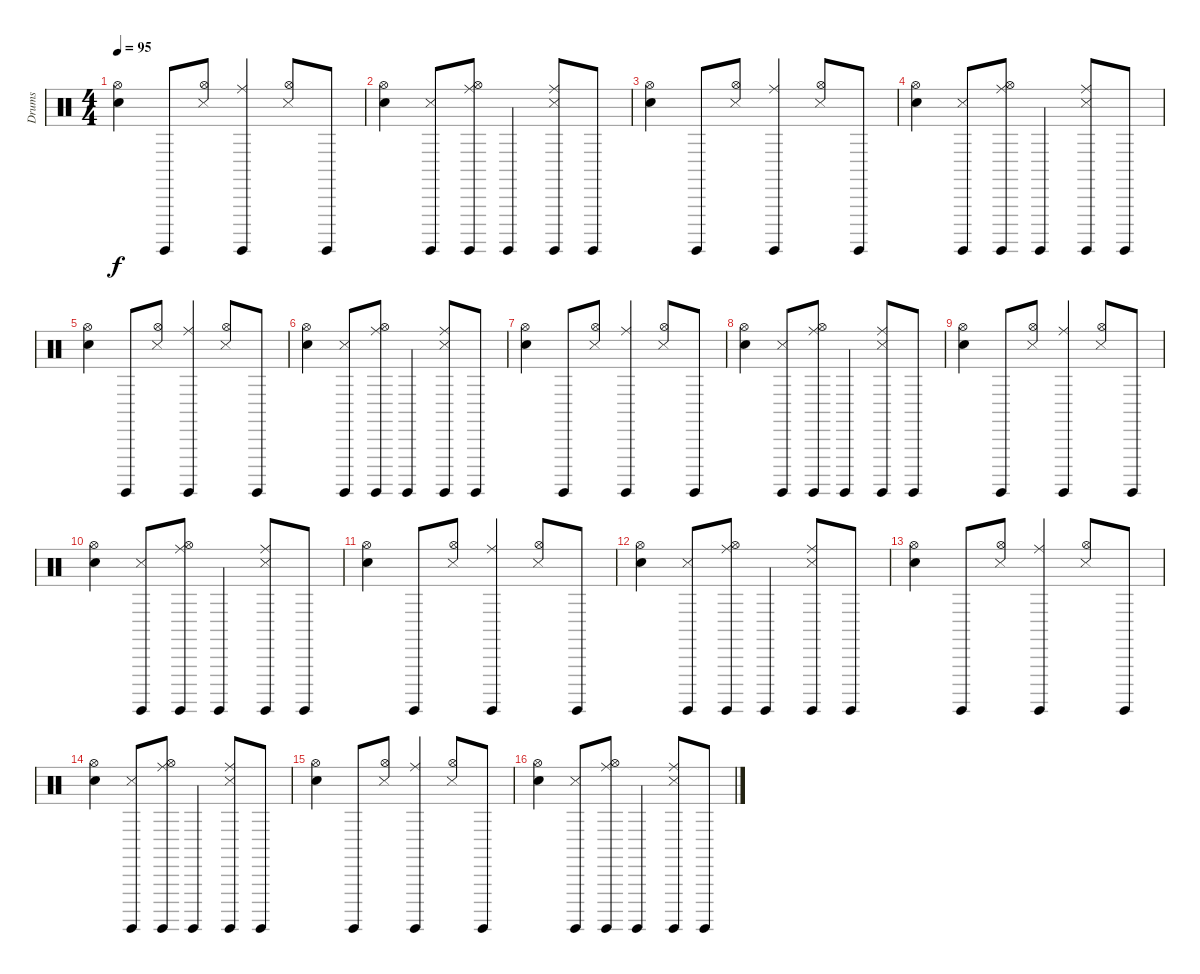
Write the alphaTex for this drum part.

\track ("Drums" "Drums") {instrument percussion}
\staff {score}
\articulation defaults
\ts (4 4)
\tempo 95
\clef neutral
\ks c
("Snare (hit) 2" "Hi-Hat (open)").4{dy f} "Surdo (hit)".8 ("Hi-Hat (open)" "Snare (side stick) 3").8 ("Surdo (hit)" "Ride (middle)").4 ("Hi-Hat (open)" "Snare (side stick) 3").8 "Surdo (hit)".8 |
("Snare (hit) 2" "Hi-Hat (open)").4 ("Surdo (hit)" "Snare (side stick) 3").8 ("Surdo (hit)" "Ride (middle)" "Hi-Hat (open)").8 "Surdo (hit)".4 ("Surdo (hit)" "Ride (middle)" "Snare (side stick) 3").8 "Surdo (hit)".8 |
("Snare (hit) 2" "Hi-Hat (open)").4 "Surdo (hit)".8 ("Hi-Hat (open)" "Snare (side stick) 3").8 ("Surdo (hit)" "Ride (middle)").4 ("Hi-Hat (open)" "Snare (side stick) 3").8 "Surdo (hit)".8 |
("Snare (hit) 2" "Hi-Hat (open)").4 ("Surdo (hit)" "Snare (side stick) 3").8 ("Surdo (hit)" "Ride (middle)" "Hi-Hat (open)").8 "Surdo (hit)".4 ("Surdo (hit)" "Ride (middle)" "Snare (side stick) 3").8 "Surdo (hit)".8 |
("Snare (hit) 2" "Hi-Hat (open)").4 "Surdo (hit)".8 ("Hi-Hat (open)" "Snare (side stick) 3").8 ("Surdo (hit)" "Ride (middle)").4 ("Hi-Hat (open)" "Snare (side stick) 3").8 "Surdo (hit)".8 |
("Snare (hit) 2" "Hi-Hat (open)").4 ("Surdo (hit)" "Snare (side stick) 3").8 ("Surdo (hit)" "Ride (middle)" "Hi-Hat (open)").8 "Surdo (hit)".4 ("Surdo (hit)" "Ride (middle)" "Snare (side stick) 3").8 "Surdo (hit)".8 |
("Snare (hit) 2" "Hi-Hat (open)").4 "Surdo (hit)".8 ("Hi-Hat (open)" "Snare (side stick) 3").8 ("Surdo (hit)" "Ride (middle)").4 ("Hi-Hat (open)" "Snare (side stick) 3").8 "Surdo (hit)".8 |
("Snare (hit) 2" "Hi-Hat (open)").4 ("Surdo (hit)" "Snare (side stick) 3").8 ("Surdo (hit)" "Ride (middle)" "Hi-Hat (open)").8 "Surdo (hit)".4 ("Surdo (hit)" "Ride (middle)" "Snare (side stick) 3").8 "Surdo (hit)".8 |
("Snare (hit) 2" "Hi-Hat (open)").4 "Surdo (hit)".8 ("Hi-Hat (open)" "Snare (side stick) 3").8 ("Surdo (hit)" "Ride (middle)").4 ("Hi-Hat (open)" "Snare (side stick) 3").8 "Surdo (hit)".8 |
("Snare (hit) 2" "Hi-Hat (open)").4 ("Surdo (hit)" "Snare (side stick) 3").8 ("Surdo (hit)" "Ride (middle)" "Hi-Hat (open)").8 "Surdo (hit)".4 ("Surdo (hit)" "Ride (middle)" "Snare (side stick) 3").8 "Surdo (hit)".8 |
("Snare (hit) 2" "Hi-Hat (open)").4 "Surdo (hit)".8 ("Hi-Hat (open)" "Snare (side stick) 3").8 ("Surdo (hit)" "Ride (middle)").4 ("Hi-Hat (open)" "Snare (side stick) 3").8 "Surdo (hit)".8 |
("Snare (hit) 2" "Hi-Hat (open)").4 ("Surdo (hit)" "Snare (side stick) 3").8 ("Surdo (hit)" "Ride (middle)" "Hi-Hat (open)").8 "Surdo (hit)".4 ("Surdo (hit)" "Ride (middle)" "Snare (side stick) 3").8 "Surdo (hit)".8 |
("Snare (hit) 2" "Hi-Hat (open)").4 "Surdo (hit)".8 ("Hi-Hat (open)" "Snare (side stick) 3").8 ("Surdo (hit)" "Ride (middle)").4 ("Hi-Hat (open)" "Snare (side stick) 3").8 "Surdo (hit)".8{volume 8} |
("Snare (hit) 2" "Hi-Hat (open)").4 ("Surdo (hit)" "Snare (side stick) 3").8 ("Surdo (hit)" "Ride (middle)" "Hi-Hat (open)").8 "Surdo (hit)".4 ("Surdo (hit)" "Ride (middle)" "Snare (side stick) 3").8 "Surdo (hit)".8 |
("Snare (hit) 2" "Hi-Hat (open)").4 "Surdo (hit)".8 ("Hi-Hat (open)" "Snare (side stick) 3").8 ("Surdo (hit)" "Ride (middle)").4 ("Hi-Hat (open)" "Snare (side stick) 3").8 "Surdo (hit)".8 |
("Snare (hit) 2" "Hi-Hat (open)").4 ("Surdo (hit)" "Snare (side stick) 3").8 ("Surdo (hit)" "Ride (middle)" "Hi-Hat (open)").8 "Surdo (hit)".4 ("Surdo (hit)" "Ride (middle)" "Snare (side stick) 3").8 "Surdo (hit)".8
